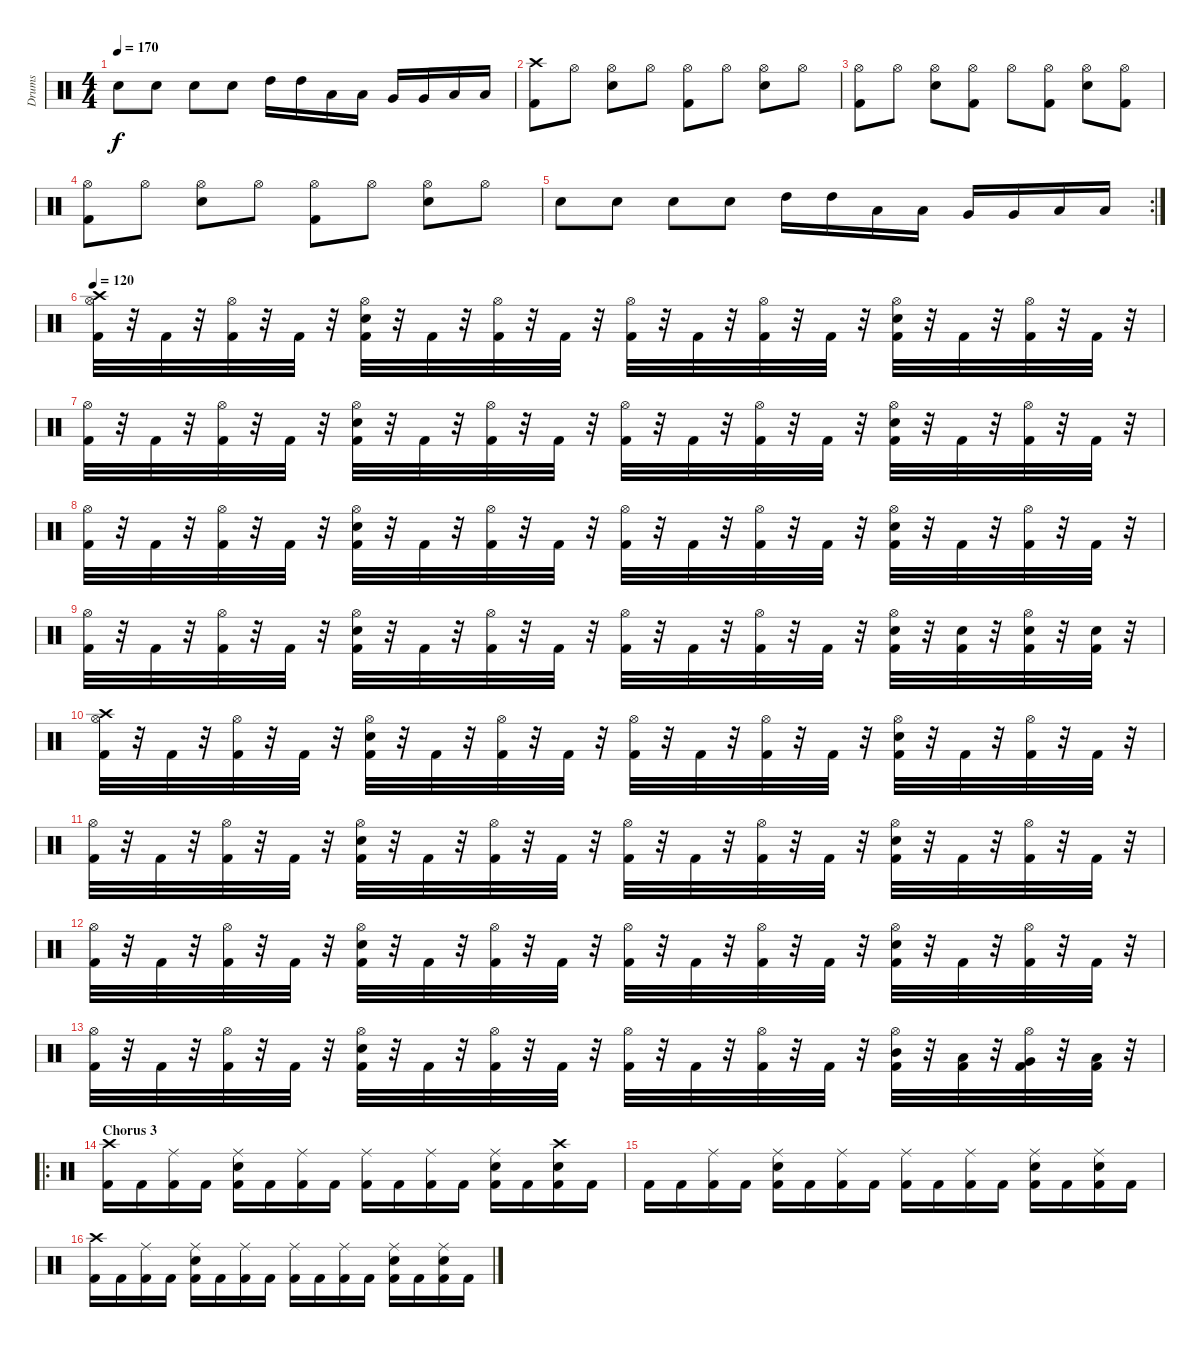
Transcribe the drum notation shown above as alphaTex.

\track ("Drums" "Drums") {instrument percussion}
\staff {score}
\articulation defaults
\ts (4 4)
\tempo 170
\clef neutral
\ks c "Snare (hit) 2".8{dy f} "Snare (hit) 2".8 "Snare (hit) 2".8 "Snare (hit) 2".8 "High Tom (hit)".16 "High Tom (hit)".16 "Low Tom (hit)".16 "Low Tom (hit)".16 "Very Low Tom (hit)".16 "Very Low Tom (hit)".16 "Low Floor Tom (hit)".16 "Low Floor Tom (hit)".16
|
("Crash high (hit)" "Kick (hit) 2").8 "Hi-Hat (open)".8 ("Hi-Hat (open)" "Snare (hit) 2").8 "Hi-Hat (open)".8 ("Hi-Hat (open)" "Kick (hit) 2").8 "Hi-Hat (open)".8 ("Hi-Hat (open)" "Snare (hit) 2").8 "Hi-Hat (open)".8 |
("Hi-Hat (open)" "Kick (hit) 2").8 "Hi-Hat (open)".8 ("Hi-Hat (open)" "Snare (hit) 2").8 ("Hi-Hat (open)" "Kick (hit) 2").8 "Hi-Hat (open)".8 ("Hi-Hat (open)" "Kick (hit) 2").8 ("Hi-Hat (open)" "Snare (hit) 2").8 ("Hi-Hat (open)" "Kick (hit) 2").8 |
("Hi-Hat (open)" "Kick (hit) 2").8 "Hi-Hat (open)".8 ("Hi-Hat (open)" "Snare (hit) 2").8 "Hi-Hat (open)".8 ("Hi-Hat (open)" "Kick (hit) 2").8 "Hi-Hat (open)".8 ("Hi-Hat (open)" "Snare (hit) 2").8 "Hi-Hat (open)".8 |
\rc 2 "Snare (hit) 2".8 "Snare (hit) 2".8 "Snare (hit) 2".8 "Snare (hit) 2".8 "High Tom (hit)".16 "High Tom (hit)".16 "Low Tom (hit)".16 "Low Tom (hit)".16 "Very Low Tom (hit)".16 "Very Low Tom (hit)".16 "Low Floor Tom (hit)".16 "Low Floor Tom (hit)".16
|
\tempo 120
("Crash high (hit)" "Hi-Hat (open)" "Kick (hit) 2").32 r.32 "Kick (hit) 2".32 r.32 ("Hi-Hat (open)" "Kick (hit) 2").32 r.32 "Kick (hit) 2".32 r.32 ("Hi-Hat (open)" "Snare (hit) 2" "Kick (hit) 2").32 r.32 "Kick (hit) 2".32 r.32 ("Hi-Hat (open)" "Kick (hit) 2").32 r.32 "Kick (hit) 2".32 r.32 ("Hi-Hat (open)" "Kick (hit) 2").32 r.32 "Kick (hit) 2".32 r.32 ("Hi-Hat (open)" "Kick (hit) 2").32 r.32 "Kick (hit) 2".32 r.32 ("Hi-Hat (open)" "Snare (hit) 2" "Kick (hit) 2").32 r.32 "Kick (hit) 2".32 r.32 ("Hi-Hat (open)" "Kick (hit) 2").32 r.32 "Kick (hit) 2".32 r.32 |
("Hi-Hat (open)" "Kick (hit) 2").32 r.32 "Kick (hit) 2".32 r.32 ("Hi-Hat (open)" "Kick (hit) 2").32 r.32 "Kick (hit) 2".32 r.32 ("Hi-Hat (open)" "Snare (hit) 2" "Kick (hit) 2").32 r.32 "Kick (hit) 2".32 r.32 ("Hi-Hat (open)" "Kick (hit) 2").32 r.32 "Kick (hit) 2".32 r.32 ("Hi-Hat (open)" "Kick (hit) 2").32 r.32 "Kick (hit) 2".32 r.32 ("Hi-Hat (open)" "Kick (hit) 2").32 r.32 "Kick (hit) 2".32 r.32 ("Hi-Hat (open)" "Snare (hit) 2" "Kick (hit) 2").32 r.32 "Kick (hit) 2".32 r.32 ("Hi-Hat (open)" "Kick (hit) 2").32 r.32 "Kick (hit) 2".32 r.32 |
("Hi-Hat (open)" "Kick (hit) 2").32 r.32 "Kick (hit) 2".32 r.32 ("Hi-Hat (open)" "Kick (hit) 2").32 r.32 "Kick (hit) 2".32 r.32 ("Hi-Hat (open)" "Snare (hit) 2" "Kick (hit) 2").32 r.32 "Kick (hit) 2".32 r.32 ("Hi-Hat (open)" "Kick (hit) 2").32 r.32 "Kick (hit) 2".32 r.32 ("Hi-Hat (open)" "Kick (hit) 2").32 r.32 "Kick (hit) 2".32 r.32 ("Hi-Hat (open)" "Kick (hit) 2").32 r.32 "Kick (hit) 2".32 r.32 ("Hi-Hat (open)" "Snare (hit) 2" "Kick (hit) 2").32 r.32 "Kick (hit) 2".32 r.32 ("Hi-Hat (open)" "Kick (hit) 2").32 r.32 "Kick (hit) 2".32 r.32 |
("Hi-Hat (open)" "Kick (hit) 2").32 r.32 "Kick (hit) 2".32 r.32 ("Hi-Hat (open)" "Kick (hit) 2").32 r.32 "Kick (hit) 2".32 r.32 ("Hi-Hat (open)" "Snare (hit) 2" "Kick (hit) 2").32 r.32 "Kick (hit) 2".32 r.32 ("Hi-Hat (open)" "Kick (hit) 2").32 r.32 "Kick (hit) 2".32 r.32 ("Hi-Hat (open)" "Kick (hit) 2").32 r.32 "Kick (hit) 2".32 r.32 ("Hi-Hat (open)" "Kick (hit) 2").32 r.32 "Kick (hit) 2".32 r.32 ("Hi-Hat (open)" "Snare (hit) 2" "Kick (hit) 2").32 r.32 ("Snare (hit) 2" "Kick (hit) 2").32 r.32 ("Hi-Hat (open)" "Snare (hit) 2" "Kick (hit) 2").32 r.32 ("Snare (hit) 2" "Kick (hit) 2").32 r.32 |
("Crash high (hit)" "Hi-Hat (open)" "Kick (hit) 2").32 r.32 "Kick (hit) 2".32 r.32 ("Hi-Hat (open)" "Kick (hit) 2").32 r.32 "Kick (hit) 2".32 r.32 ("Hi-Hat (open)" "Snare (hit) 2" "Kick (hit) 2").32 r.32 "Kick (hit) 2".32 r.32 ("Hi-Hat (open)" "Kick (hit) 2").32 r.32 "Kick (hit) 2".32 r.32 ("Hi-Hat (open)" "Kick (hit) 2").32 r.32 "Kick (hit) 2".32 r.32 ("Hi-Hat (open)" "Kick (hit) 2").32 r.32 "Kick (hit) 2".32 r.32 ("Hi-Hat (open)" "Snare (hit) 2" "Kick (hit) 2").32 r.32 "Kick (hit) 2".32 r.32 ("Hi-Hat (open)" "Kick (hit) 2").32 r.32 "Kick (hit) 2".32 r.32 |
("Hi-Hat (open)" "Kick (hit) 2").32 r.32 "Kick (hit) 2".32 r.32 ("Hi-Hat (open)" "Kick (hit) 2").32 r.32 "Kick (hit) 2".32 r.32 ("Hi-Hat (open)" "Snare (hit) 2" "Kick (hit) 2").32 r.32 "Kick (hit) 2".32 r.32 ("Hi-Hat (open)" "Kick (hit) 2").32 r.32 "Kick (hit) 2".32 r.32 ("Hi-Hat (open)" "Kick (hit) 2").32 r.32 "Kick (hit) 2".32 r.32 ("Hi-Hat (open)" "Kick (hit) 2").32 r.32 "Kick (hit) 2".32 r.32 ("Hi-Hat (open)" "Snare (hit) 2" "Kick (hit) 2").32 r.32 "Kick (hit) 2".32 r.32 ("Hi-Hat (open)" "Kick (hit) 2").32 r.32 "Kick (hit) 2".32 r.32 |
("Hi-Hat (open)" "Kick (hit) 2").32 r.32 "Kick (hit) 2".32 r.32 ("Hi-Hat (open)" "Kick (hit) 2").32 r.32 "Kick (hit) 2".32 r.32 ("Hi-Hat (open)" "Snare (hit) 2" "Kick (hit) 2").32 r.32 "Kick (hit) 2".32 r.32 ("Hi-Hat (open)" "Kick (hit) 2").32 r.32 "Kick (hit) 2".32 r.32 ("Hi-Hat (open)" "Kick (hit) 2").32 r.32 "Kick (hit) 2".32 r.32 ("Hi-Hat (open)" "Kick (hit) 2").32 r.32 "Kick (hit) 2".32 r.32 ("Hi-Hat (open)" "Snare (hit) 2" "Kick (hit) 2").32 r.32 "Kick (hit) 2".32 r.32 ("Hi-Hat (open)" "Kick (hit) 2").32 r.32 "Kick (hit) 2".32 r.32 |
("Hi-Hat (open)" "Kick (hit) 2").32 r.32 "Kick (hit) 2".32 r.32 ("Hi-Hat (open)" "Kick (hit) 2").32 r.32 "Kick (hit) 2".32 r.32 ("Hi-Hat (open)" "Snare (hit) 2" "Kick (hit) 2").32 r.32 "Kick (hit) 2".32 r.32 ("Hi-Hat (open)" "Kick (hit) 2").32 r.32 "Kick (hit) 2".32 r.32 ("Hi-Hat (open)" "Kick (hit) 2").32 r.32 "Kick (hit) 2".32 r.32 ("Hi-Hat (open)" "Kick (hit) 2").32 r.32 "Kick (hit) 2".32 r.32 ("Hi-Hat (open)" "Mid Tom (hit)" "Kick (hit) 2").32 r.32 ("Low Tom (hit)" "Kick (hit) 2").32 r.32 ("Hi-Hat (open)" "Very Low Tom (hit)" "Kick (hit) 2").32 r.32 ("Low Floor Tom (hit)" "Kick (hit) 2").32 r.32 |
\ro
\section ("" "Chorus 3")
("Crash high (hit)" "Kick (hit) 2").16 "Kick (hit) 2".16 ("Ride (middle)" "Kick (hit) 2").16 "Kick (hit) 2".16 ("Ride (middle)" "Snare (hit) 2" "Kick (hit) 2").16 "Kick (hit) 2".16 ("Ride (middle)" "Kick (hit) 2").16 "Kick (hit) 2".16 ("Ride (middle)" "Kick (hit) 2").16 "Kick (hit) 2".16 ("Ride (middle)" "Kick (hit) 2").16 "Kick (hit) 2".16 ("Ride (middle)" "Snare (hit) 2" "Kick (hit) 2").16 "Kick (hit) 2".16 ("Crash high (hit)" "Snare (hit) 2" "Kick (hit) 2").16 "Kick (hit) 2".16 |
"Kick (hit) 2".16 "Kick (hit) 2".16 ("Ride (middle)" "Kick (hit) 2").16 "Kick (hit) 2".16 ("Ride (middle)" "Snare (hit) 2" "Kick (hit) 2").16 "Kick (hit) 2".16 ("Ride (middle)" "Kick (hit) 2").16 "Kick (hit) 2".16 ("Ride (middle)" "Kick (hit) 2").16 "Kick (hit) 2".16 ("Ride (middle)" "Kick (hit) 2").16 "Kick (hit) 2".16 ("Ride (middle)" "Snare (hit) 2" "Kick (hit) 2").16 "Kick (hit) 2".16 ("Ride (middle)" "Snare (hit) 2" "Kick (hit) 2").16 "Kick (hit) 2".16 |
("Crash high (hit)" "Kick (hit) 2").16 "Kick (hit) 2".16 ("Ride (middle)" "Kick (hit) 2").16 "Kick (hit) 2".16 ("Ride (middle)" "Snare (hit) 2" "Kick (hit) 2").16 "Kick (hit) 2".16 ("Ride (middle)" "Kick (hit) 2").16 "Kick (hit) 2".16 ("Ride (middle)" "Kick (hit) 2").16 "Kick (hit) 2".16 ("Ride (middle)" "Kick (hit) 2").16 "Kick (hit) 2".16 ("Ride (middle)" "Snare (hit) 2" "Kick (hit) 2").16 "Kick (hit) 2".16 ("Ride (middle)" "Snare (hit) 2" "Kick (hit) 2").16 "Kick (hit) 2".16
